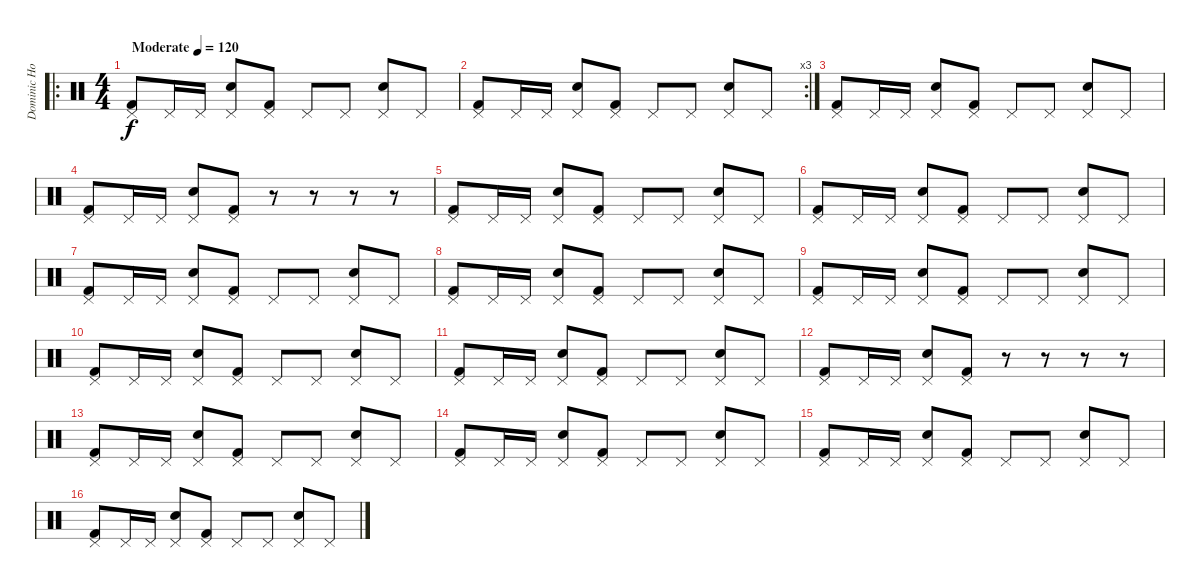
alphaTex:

\track ("Dominic Howard" "Dominic Ho") {instrument percussion}
\staff {score}
\articulation defaults
\ro
\ts (4 4)
\tempo (120 "Moderate")
\clef neutral
\ks c
("Pedal Hi-Hat (hit)" "Kick (hit) 2").8{dy f} "Pedal Hi-Hat (hit)".16 "Pedal Hi-Hat (hit)".16 ("Pedal Hi-Hat (hit)" "Snare (hit) 2").8 ("Pedal Hi-Hat (hit)" "Kick (hit) 2").8 "Pedal Hi-Hat (hit)".8 "Pedal Hi-Hat (hit)".8 ("Pedal Hi-Hat (hit)" "Snare (hit) 2").8 "Pedal Hi-Hat (hit)".8 |
\rc 3
("Pedal Hi-Hat (hit)" "Kick (hit) 2").8 "Pedal Hi-Hat (hit)".16 "Pedal Hi-Hat (hit)".16 ("Pedal Hi-Hat (hit)" "Snare (hit) 2").8 ("Pedal Hi-Hat (hit)" "Kick (hit) 2").8 "Pedal Hi-Hat (hit)".8 "Pedal Hi-Hat (hit)".8 ("Pedal Hi-Hat (hit)" "Snare (hit) 2").8 "Pedal Hi-Hat (hit)".8 |
("Pedal Hi-Hat (hit)" "Kick (hit) 2").8 "Pedal Hi-Hat (hit)".16 "Pedal Hi-Hat (hit)".16 ("Pedal Hi-Hat (hit)" "Snare (hit) 2").8 ("Pedal Hi-Hat (hit)" "Kick (hit) 2").8 "Pedal Hi-Hat (hit)".8 "Pedal Hi-Hat (hit)".8 ("Pedal Hi-Hat (hit)" "Snare (hit) 2").8 "Pedal Hi-Hat (hit)".8 |
("Pedal Hi-Hat (hit)" "Kick (hit) 2").8 "Pedal Hi-Hat (hit)".16 "Pedal Hi-Hat (hit)".16 ("Pedal Hi-Hat (hit)" "Snare (hit) 2").8 ("Pedal Hi-Hat (hit)" "Kick (hit) 2").8 r.8 r.8 r.8 r.8 |
("Pedal Hi-Hat (hit)" "Kick (hit) 2").8 "Pedal Hi-Hat (hit)".16 "Pedal Hi-Hat (hit)".16 ("Pedal Hi-Hat (hit)" "Snare (hit) 2").8 ("Pedal Hi-Hat (hit)" "Kick (hit) 2").8 "Pedal Hi-Hat (hit)".8 "Pedal Hi-Hat (hit)".8 ("Pedal Hi-Hat (hit)" "Snare (hit) 2").8 "Pedal Hi-Hat (hit)".8 |
("Pedal Hi-Hat (hit)" "Kick (hit) 2").8 "Pedal Hi-Hat (hit)".16 "Pedal Hi-Hat (hit)".16 ("Pedal Hi-Hat (hit)" "Snare (hit) 2").8 ("Pedal Hi-Hat (hit)" "Kick (hit) 2").8 "Pedal Hi-Hat (hit)".8 "Pedal Hi-Hat (hit)".8 ("Pedal Hi-Hat (hit)" "Snare (hit) 2").8 "Pedal Hi-Hat (hit)".8 |
("Pedal Hi-Hat (hit)" "Kick (hit) 2").8 "Pedal Hi-Hat (hit)".16 "Pedal Hi-Hat (hit)".16 ("Pedal Hi-Hat (hit)" "Snare (hit) 2").8 ("Pedal Hi-Hat (hit)" "Kick (hit) 2").8 "Pedal Hi-Hat (hit)".8 "Pedal Hi-Hat (hit)".8 ("Pedal Hi-Hat (hit)" "Snare (hit) 2").8 "Pedal Hi-Hat (hit)".8 |
("Pedal Hi-Hat (hit)" "Kick (hit) 2").8 "Pedal Hi-Hat (hit)".16 "Pedal Hi-Hat (hit)".16 ("Pedal Hi-Hat (hit)" "Snare (hit) 2").8 ("Pedal Hi-Hat (hit)" "Kick (hit) 2").8 "Pedal Hi-Hat (hit)".8 "Pedal Hi-Hat (hit)".8 ("Pedal Hi-Hat (hit)" "Snare (hit) 2").8 "Pedal Hi-Hat (hit)".8 |
("Pedal Hi-Hat (hit)" "Kick (hit) 2").8 "Pedal Hi-Hat (hit)".16 "Pedal Hi-Hat (hit)".16 ("Pedal Hi-Hat (hit)" "Snare (hit) 2").8 ("Pedal Hi-Hat (hit)" "Kick (hit) 2").8 "Pedal Hi-Hat (hit)".8 "Pedal Hi-Hat (hit)".8 ("Pedal Hi-Hat (hit)" "Snare (hit) 2").8 "Pedal Hi-Hat (hit)".8 |
("Pedal Hi-Hat (hit)" "Kick (hit) 2").8 "Pedal Hi-Hat (hit)".16 "Pedal Hi-Hat (hit)".16 ("Pedal Hi-Hat (hit)" "Snare (hit) 2").8 ("Pedal Hi-Hat (hit)" "Kick (hit) 2").8 "Pedal Hi-Hat (hit)".8 "Pedal Hi-Hat (hit)".8 ("Pedal Hi-Hat (hit)" "Snare (hit) 2").8 "Pedal Hi-Hat (hit)".8 |
("Pedal Hi-Hat (hit)" "Kick (hit) 2").8 "Pedal Hi-Hat (hit)".16 "Pedal Hi-Hat (hit)".16 ("Pedal Hi-Hat (hit)" "Snare (hit) 2").8 ("Pedal Hi-Hat (hit)" "Kick (hit) 2").8 "Pedal Hi-Hat (hit)".8 "Pedal Hi-Hat (hit)".8 ("Pedal Hi-Hat (hit)" "Snare (hit) 2").8 "Pedal Hi-Hat (hit)".8 |
("Pedal Hi-Hat (hit)" "Kick (hit) 2").8 "Pedal Hi-Hat (hit)".16 "Pedal Hi-Hat (hit)".16 ("Pedal Hi-Hat (hit)" "Snare (hit) 2").8 ("Pedal Hi-Hat (hit)" "Kick (hit) 2").8 r.8 r.8 r.8 r.8 |
("Pedal Hi-Hat (hit)" "Kick (hit) 2").8 "Pedal Hi-Hat (hit)".16 "Pedal Hi-Hat (hit)".16 ("Pedal Hi-Hat (hit)" "Snare (hit) 2").8 ("Pedal Hi-Hat (hit)" "Kick (hit) 2").8 "Pedal Hi-Hat (hit)".8 "Pedal Hi-Hat (hit)".8 ("Pedal Hi-Hat (hit)" "Snare (hit) 2").8 "Pedal Hi-Hat (hit)".8 |
("Pedal Hi-Hat (hit)" "Kick (hit) 2").8 "Pedal Hi-Hat (hit)".16 "Pedal Hi-Hat (hit)".16 ("Pedal Hi-Hat (hit)" "Snare (hit) 2").8 ("Pedal Hi-Hat (hit)" "Kick (hit) 2").8 "Pedal Hi-Hat (hit)".8 "Pedal Hi-Hat (hit)".8 ("Pedal Hi-Hat (hit)" "Snare (hit) 2").8 "Pedal Hi-Hat (hit)".8 |
("Pedal Hi-Hat (hit)" "Kick (hit) 2").8 "Pedal Hi-Hat (hit)".16 "Pedal Hi-Hat (hit)".16 ("Pedal Hi-Hat (hit)" "Snare (hit) 2").8 ("Pedal Hi-Hat (hit)" "Kick (hit) 2").8 "Pedal Hi-Hat (hit)".8 "Pedal Hi-Hat (hit)".8 ("Pedal Hi-Hat (hit)" "Snare (hit) 2").8 "Pedal Hi-Hat (hit)".8 |
("Pedal Hi-Hat (hit)" "Kick (hit) 2").8 "Pedal Hi-Hat (hit)".16 "Pedal Hi-Hat (hit)".16 ("Pedal Hi-Hat (hit)" "Snare (hit) 2").8 ("Pedal Hi-Hat (hit)" "Kick (hit) 2").8 "Pedal Hi-Hat (hit)".8 "Pedal Hi-Hat (hit)".8 ("Pedal Hi-Hat (hit)" "Snare (hit) 2").8 "Pedal Hi-Hat (hit)".8
